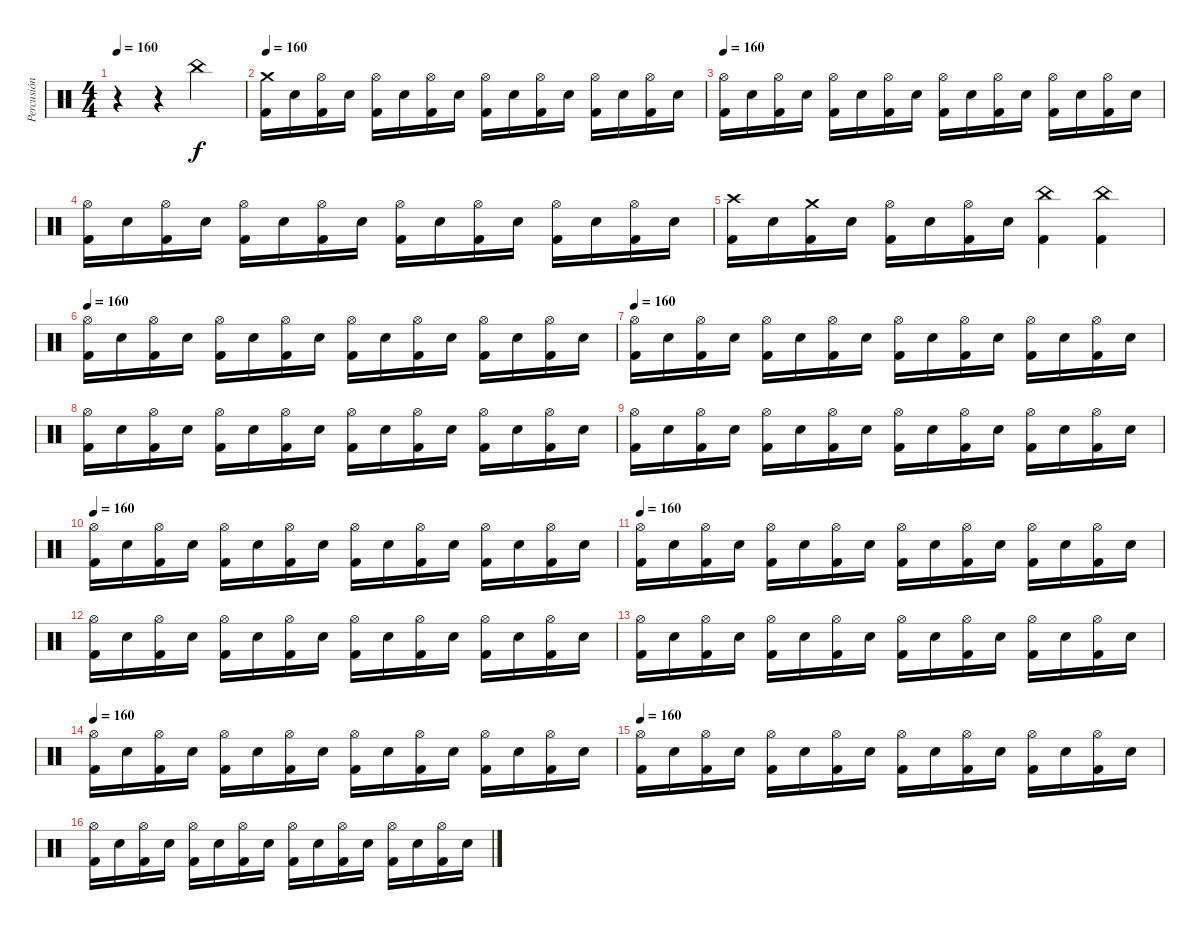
\track ("Percusión" "Percusión") {instrument percussion}
\staff {score}
\articulation defaults
\ts (4 4)
\tempo 160
\clef neutral
\ks c
r.4{dy f} r.4 "China (hit)".2 |
\tempo 160
("Crash medium (hit)" "Kick (hit) 2").16 "Electric Snare (hit)".16 ("Hi-Hat (open)" "Kick (hit) 2").16 "Electric Snare (hit)".16 ("Hi-Hat (open)" "Kick (hit) 2").16 "Electric Snare (hit)".16 ("Hi-Hat (open)" "Kick (hit) 2").16 "Electric Snare (hit)".16 ("Hi-Hat (open)" "Kick (hit) 2").16 "Electric Snare (hit)".16 ("Hi-Hat (open)" "Kick (hit) 2").16 "Electric Snare (hit)".16 ("Hi-Hat (open)" "Kick (hit) 2").16 "Electric Snare (hit)".16 ("Hi-Hat (open)" "Kick (hit) 2").16 "Electric Snare (hit)".16 |
\tempo 160
("Hi-Hat (open)" "Kick (hit) 2").16 "Electric Snare (hit)".16 ("Hi-Hat (open)" "Kick (hit) 2").16 "Electric Snare (hit)".16 ("Hi-Hat (open)" "Kick (hit) 2").16 "Electric Snare (hit)".16 ("Hi-Hat (open)" "Kick (hit) 2").16 "Electric Snare (hit)".16 ("Hi-Hat (open)" "Kick (hit) 2").16 "Electric Snare (hit)".16 ("Hi-Hat (open)" "Kick (hit) 2").16 "Electric Snare (hit)".16 ("Hi-Hat (open)" "Kick (hit) 2").16 "Electric Snare (hit)".16 ("Hi-Hat (open)" "Kick (hit) 2").16 "Electric Snare (hit)".16 |
("Hi-Hat (open)" "Kick (hit) 2").16 "Electric Snare (hit)".16 ("Hi-Hat (open)" "Kick (hit) 2").16 "Electric Snare (hit)".16 ("Hi-Hat (open)" "Kick (hit) 2").16 "Electric Snare (hit)".16 ("Hi-Hat (open)" "Kick (hit) 2").16 "Electric Snare (hit)".16 ("Hi-Hat (open)" "Kick (hit) 2").16 "Electric Snare (hit)".16 ("Hi-Hat (open)" "Kick (hit) 2").16 "Electric Snare (hit)".16 ("Hi-Hat (open)" "Kick (hit) 2").16 "Electric Snare (hit)".16 ("Hi-Hat (open)" "Kick (hit) 2").16 "Electric Snare (hit)".16 |
("Crash high (hit)" "Kick (hit) 2").16 "Electric Snare (hit)".16 ("Crash medium (hit)" "Kick (hit) 2").16 "Electric Snare (hit)".16 ("Hi-Hat (open)" "Kick (hit) 2").16 "Electric Snare (hit)".16 ("Hi-Hat (open)" "Kick (hit) 2").16 "Electric Snare (hit)".16 ("China (hit)" "Kick (hit) 2").4 ("China (hit)" "Kick (hit) 2").4 |
\tempo 160
("Hi-Hat (open)" "Kick (hit) 2").16 "Electric Snare (hit)".16 ("Hi-Hat (open)" "Kick (hit) 2").16 "Electric Snare (hit)".16 ("Hi-Hat (open)" "Kick (hit) 2").16 "Electric Snare (hit)".16 ("Hi-Hat (open)" "Kick (hit) 2").16 "Electric Snare (hit)".16 ("Hi-Hat (open)" "Kick (hit) 2").16 "Electric Snare (hit)".16 ("Hi-Hat (open)" "Kick (hit) 2").16 "Electric Snare (hit)".16 ("Hi-Hat (open)" "Kick (hit) 2").16 "Electric Snare (hit)".16 ("Hi-Hat (open)" "Kick (hit) 2").16 "Electric Snare (hit)".16 |
\tempo 160
("Hi-Hat (open)" "Kick (hit) 2").16 "Electric Snare (hit)".16 ("Hi-Hat (open)" "Kick (hit) 2").16 "Electric Snare (hit)".16 ("Hi-Hat (open)" "Kick (hit) 2").16 "Electric Snare (hit)".16 ("Hi-Hat (open)" "Kick (hit) 2").16 "Electric Snare (hit)".16 ("Hi-Hat (open)" "Kick (hit) 2").16 "Electric Snare (hit)".16 ("Hi-Hat (open)" "Kick (hit) 2").16 "Electric Snare (hit)".16 ("Hi-Hat (open)" "Kick (hit) 2").16 "Electric Snare (hit)".16 ("Hi-Hat (open)" "Kick (hit) 2").16 "Electric Snare (hit)".16 |
("Hi-Hat (open)" "Kick (hit) 2").16 "Electric Snare (hit)".16 ("Hi-Hat (open)" "Kick (hit) 2").16 "Electric Snare (hit)".16 ("Hi-Hat (open)" "Kick (hit) 2").16 "Electric Snare (hit)".16 ("Hi-Hat (open)" "Kick (hit) 2").16 "Electric Snare (hit)".16 ("Hi-Hat (open)" "Kick (hit) 2").16 "Electric Snare (hit)".16 ("Hi-Hat (open)" "Kick (hit) 2").16 "Electric Snare (hit)".16 ("Hi-Hat (open)" "Kick (hit) 2").16 "Electric Snare (hit)".16 ("Hi-Hat (open)" "Kick (hit) 2").16 "Electric Snare (hit)".16 |
("Hi-Hat (open)" "Kick (hit) 2").16 "Electric Snare (hit)".16 ("Hi-Hat (open)" "Kick (hit) 2").16 "Electric Snare (hit)".16 ("Hi-Hat (open)" "Kick (hit) 2").16 "Electric Snare (hit)".16 ("Hi-Hat (open)" "Kick (hit) 2").16 "Electric Snare (hit)".16 ("Hi-Hat (open)" "Kick (hit) 2").16 "Electric Snare (hit)".16 ("Hi-Hat (open)" "Kick (hit) 2").16 "Electric Snare (hit)".16 ("Hi-Hat (open)" "Kick (hit) 2").16 "Electric Snare (hit)".16 ("Hi-Hat (open)" "Kick (hit) 2").16 "Electric Snare (hit)".16 |
\tempo 160
("Hi-Hat (open)" "Kick (hit) 2").16 "Electric Snare (hit)".16 ("Hi-Hat (open)" "Kick (hit) 2").16 "Electric Snare (hit)".16 ("Hi-Hat (open)" "Kick (hit) 2").16 "Electric Snare (hit)".16 ("Hi-Hat (open)" "Kick (hit) 2").16 "Electric Snare (hit)".16 ("Hi-Hat (open)" "Kick (hit) 2").16 "Electric Snare (hit)".16 ("Hi-Hat (open)" "Kick (hit) 2").16 "Electric Snare (hit)".16 ("Hi-Hat (open)" "Kick (hit) 2").16 "Electric Snare (hit)".16 ("Hi-Hat (open)" "Kick (hit) 2").16 "Electric Snare (hit)".16 |
\tempo 160
("Hi-Hat (open)" "Kick (hit) 2").16 "Electric Snare (hit)".16 ("Hi-Hat (open)" "Kick (hit) 2").16 "Electric Snare (hit)".16 ("Hi-Hat (open)" "Kick (hit) 2").16 "Electric Snare (hit)".16 ("Hi-Hat (open)" "Kick (hit) 2").16 "Electric Snare (hit)".16 ("Hi-Hat (open)" "Kick (hit) 2").16 "Electric Snare (hit)".16 ("Hi-Hat (open)" "Kick (hit) 2").16 "Electric Snare (hit)".16 ("Hi-Hat (open)" "Kick (hit) 2").16 "Electric Snare (hit)".16 ("Hi-Hat (open)" "Kick (hit) 2").16 "Electric Snare (hit)".16 |
("Hi-Hat (open)" "Kick (hit) 2").16 "Electric Snare (hit)".16 ("Hi-Hat (open)" "Kick (hit) 2").16 "Electric Snare (hit)".16 ("Hi-Hat (open)" "Kick (hit) 2").16 "Electric Snare (hit)".16 ("Hi-Hat (open)" "Kick (hit) 2").16 "Electric Snare (hit)".16 ("Hi-Hat (open)" "Kick (hit) 2").16 "Electric Snare (hit)".16 ("Hi-Hat (open)" "Kick (hit) 2").16 "Electric Snare (hit)".16 ("Hi-Hat (open)" "Kick (hit) 2").16 "Electric Snare (hit)".16 ("Hi-Hat (open)" "Kick (hit) 2").16 "Electric Snare (hit)".16 |
("Hi-Hat (open)" "Kick (hit) 2").16 "Electric Snare (hit)".16 ("Hi-Hat (open)" "Kick (hit) 2").16 "Electric Snare (hit)".16 ("Hi-Hat (open)" "Kick (hit) 2").16 "Electric Snare (hit)".16 ("Hi-Hat (open)" "Kick (hit) 2").16 "Electric Snare (hit)".16 ("Hi-Hat (open)" "Kick (hit) 2").16 "Electric Snare (hit)".16 ("Hi-Hat (open)" "Kick (hit) 2").16 "Electric Snare (hit)".16 ("Hi-Hat (open)" "Kick (hit) 2").16 "Electric Snare (hit)".16 ("Hi-Hat (open)" "Kick (hit) 2").16 "Electric Snare (hit)".16 |
\tempo 160
("Hi-Hat (open)" "Kick (hit) 2").16 "Electric Snare (hit)".16 ("Hi-Hat (open)" "Kick (hit) 2").16 "Electric Snare (hit)".16 ("Hi-Hat (open)" "Kick (hit) 2").16 "Electric Snare (hit)".16 ("Hi-Hat (open)" "Kick (hit) 2").16 "Electric Snare (hit)".16 ("Hi-Hat (open)" "Kick (hit) 2").16 "Electric Snare (hit)".16 ("Hi-Hat (open)" "Kick (hit) 2").16 "Electric Snare (hit)".16 ("Hi-Hat (open)" "Kick (hit) 2").16 "Electric Snare (hit)".16 ("Hi-Hat (open)" "Kick (hit) 2").16 "Electric Snare (hit)".16 |
\tempo 160
("Hi-Hat (open)" "Kick (hit) 2").16 "Electric Snare (hit)".16 ("Hi-Hat (open)" "Kick (hit) 2").16 "Electric Snare (hit)".16 ("Hi-Hat (open)" "Kick (hit) 2").16 "Electric Snare (hit)".16 ("Hi-Hat (open)" "Kick (hit) 2").16 "Electric Snare (hit)".16 ("Hi-Hat (open)" "Kick (hit) 2").16 "Electric Snare (hit)".16 ("Hi-Hat (open)" "Kick (hit) 2").16 "Electric Snare (hit)".16 ("Hi-Hat (open)" "Kick (hit) 2").16 "Electric Snare (hit)".16 ("Hi-Hat (open)" "Kick (hit) 2").16 "Electric Snare (hit)".16 |
("Hi-Hat (open)" "Kick (hit) 2").16 "Electric Snare (hit)".16 ("Hi-Hat (open)" "Kick (hit) 2").16 "Electric Snare (hit)".16 ("Hi-Hat (open)" "Kick (hit) 2").16 "Electric Snare (hit)".16 ("Hi-Hat (open)" "Kick (hit) 2").16 "Electric Snare (hit)".16 ("Hi-Hat (open)" "Kick (hit) 2").16 "Electric Snare (hit)".16 ("Hi-Hat (open)" "Kick (hit) 2").16 "Electric Snare (hit)".16 ("Hi-Hat (open)" "Kick (hit) 2").16 "Electric Snare (hit)".16 ("Hi-Hat (open)" "Kick (hit) 2").16 "Electric Snare (hit)".16
